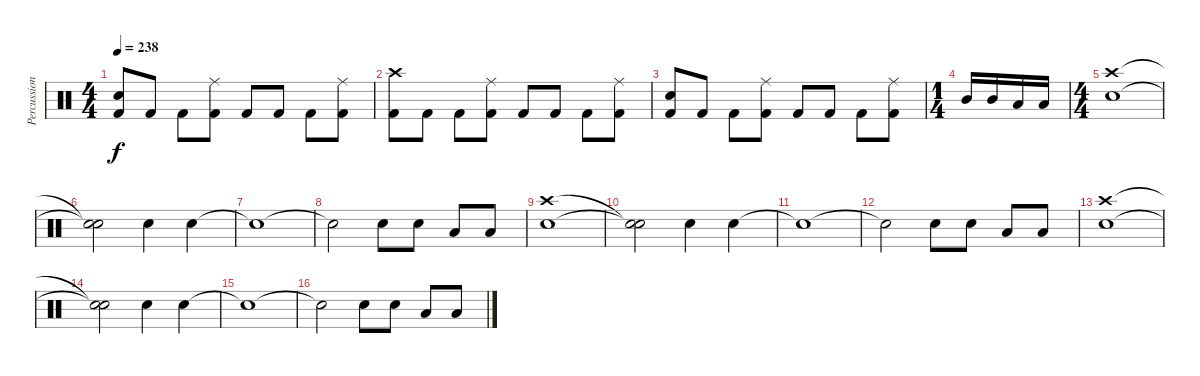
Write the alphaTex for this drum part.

\track ("Percussion" "Percussion") {instrument percussion}
\staff {score}
\articulation defaults
\ts (4 4)
\tempo 238
\clef neutral
\ks c
("Electric Snare (hit)" "Kick (hit) 2").8{dy f} "Kick (hit) 2".8 "Kick (hit) 2".8 ("Ride (middle)" "Kick (hit) 2").8 "Kick (hit) 2".8 "Kick (hit) 2".8 "Kick (hit) 2".8 ("Ride (middle)" "Kick (hit) 2").8 |
("Crash high (hit)" "Kick (hit) 2").8 "Kick (hit) 2".8 "Kick (hit) 2".8 ("Ride (middle)" "Kick (hit) 2").8 "Kick (hit) 2".8 "Kick (hit) 2".8 "Kick (hit) 2".8 ("Ride (middle)" "Kick (hit) 2").8 |
("Electric Snare (hit)" "Kick (hit) 2").8 "Kick (hit) 2".8 "Kick (hit) 2".8 ("Ride (middle)" "Kick (hit) 2").8 "Kick (hit) 2".8 "Kick (hit) 2".8 "Kick (hit) 2".8 ("Ride (middle)" "Kick (hit) 2").8 |
\ts (1 4)
"Mid Tom (hit)".16 "Mid Tom (hit)".16 "Low Tom (hit)".16 "Low Tom (hit)".16 |
\ts (4 4)
("Crash high (hit)" "Electric Snare (hit)").1 |
("Snare (hit)"{t} "Snare (hit)"{t}).2 "Electric Snare (hit)".4 "Electric Snare (hit)".4 |
"Snare (hit)"{t}.1 |
"Snare (hit)"{t}.2 "Electric Snare (hit)".8 "Electric Snare (hit)".8 "Low Tom (hit)".8 "Low Tom (hit)".8 |
("Crash high (hit)" "Electric Snare (hit)").1 |
("Snare (hit)"{t} "Snare (hit)"{t}).2 "Electric Snare (hit)".4 "Electric Snare (hit)".4 |
"Snare (hit)"{t}.1 |
"Snare (hit)"{t}.2 "Electric Snare (hit)".8 "Electric Snare (hit)".8 "Low Tom (hit)".8 "Low Tom (hit)".8 |
("Crash high (hit)" "Electric Snare (hit)").1 |
("Snare (hit)"{t} "Snare (hit)"{t}).2 "Electric Snare (hit)".4 "Electric Snare (hit)".4 |
"Snare (hit)"{t}.1 |
"Snare (hit)"{t}.2 "Electric Snare (hit)".8 "Electric Snare (hit)".8 "Low Tom (hit)".8 "Low Tom (hit)".8
